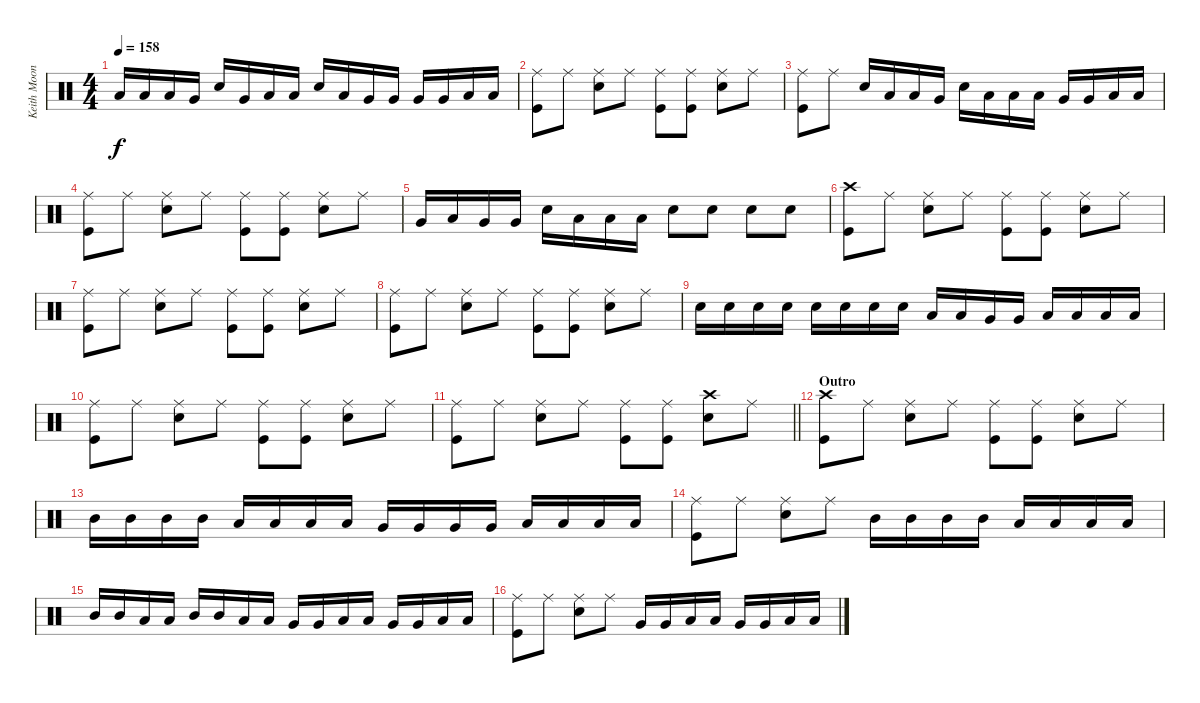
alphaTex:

\track ("Keith Moon" "Keith Moon") {instrument percussion}
\staff {score}
\articulation defaults
\ts (4 4)
\tempo 158
\clef neutral
\ks c "Low Tom (hit)".16{dy f} "Low Tom (hit)".16 "Low Floor Tom (hit)".16 "Very Low Tom (hit)".16 "Snare (hit) 2".16 "Very Low Tom (hit)".16 "Low Tom (hit)".16 "Low Tom (hit)".16 "Snare (hit) 2".16 "Low Tom (hit)".16 "Very Low Tom (hit)".16 "Very Low Tom (hit)".16 "Very Low Tom (hit)".16 "Very Low Tom (hit)".16 "Low Floor Tom (hit)".16 "Low Floor Tom (hit)".16
|
("Ride (middle)" "Kick (hit)").8 "Ride (middle)".8 ("Ride (middle)" "Snare (hit) 2").8 "Ride (middle)".8 ("Ride (middle)" "Kick (hit)").8 ("Ride (middle)" "Kick (hit)").8 ("Ride (middle)" "Snare (hit) 2").8 "Ride (middle)".8 |
("Ride (middle)" "Kick (hit)").8 "Ride (middle)".8 "Snare (hit) 2".16 "Low Tom (hit)".16 "Low Tom (hit)".16 "Very Low Tom (hit)".16 "Snare (hit) 2".16 "Low Tom (hit)".16 "Low Tom (hit)".16 "Low Tom (hit)".16 "Very Low Tom (hit)".16 "Very Low Tom (hit)".16 "Low Floor Tom (hit)".16 "Low Floor Tom (hit)".16 |
("Ride (middle)" "Kick (hit)").8 "Ride (middle)".8 ("Ride (middle)" "Snare (hit) 2").8 "Ride (middle)".8 ("Ride (middle)" "Kick (hit)").8 ("Ride (middle)" "Kick (hit)").8 ("Ride (middle)" "Snare (hit) 2").8 "Ride (middle)".8 |
"Very Low Tom (hit)".16 "Low Tom (hit)".16 "Very Low Tom (hit)".16 "Very Low Tom (hit)".16 "Snare (hit) 2".16 "Low Tom (hit)".16 "Low Tom (hit)".16 "Low Tom (hit)".16 "Snare (hit) 2".8 "Snare (hit) 2".8 "Snare (hit) 2".8 "Snare (hit) 2".8 |
("Crash high (hit)" "Kick (hit)").8 "Ride (middle)".8 ("Ride (middle)" "Snare (hit) 2").8 "Ride (middle)".8 ("Ride (middle)" "Kick (hit)").8 ("Ride (middle)" "Kick (hit)").8 ("Ride (middle)" "Snare (hit) 2").8 "Ride (middle)".8 |
("Ride (middle)" "Kick (hit)").8 "Ride (middle)".8 ("Ride (middle)" "Snare (hit) 2").8 "Ride (middle)".8 ("Ride (middle)" "Kick (hit)").8 ("Ride (middle)" "Kick (hit)").8 ("Ride (middle)" "Snare (hit) 2").8 "Ride (middle)".8 |
("Ride (middle)" "Kick (hit)").8 "Ride (middle)".8 ("Ride (middle)" "Snare (hit) 2").8 "Ride (middle)".8 ("Ride (middle)" "Kick (hit)").8 ("Ride (middle)" "Kick (hit)").8 ("Ride (middle)" "Snare (hit) 2").8 "Ride (middle)".8 |
"Snare (hit) 2".16 "Snare (hit) 2".16 "Snare (hit) 2".16 "Snare (hit) 2".16 "Snare (hit) 2".16 "Snare (hit) 2".16 "Snare (hit) 2".16 "Snare (hit) 2".16 "Low Tom (hit)".16 "Low Tom (hit)".16 "Very Low Tom (hit)".16 "Very Low Tom (hit)".16 "Low Floor Tom (hit)".16 "Low Floor Tom (hit)".16 "Low Floor Tom (hit)".16 "Low Floor Tom (hit)".16 |
("Ride (middle)" "Kick (hit)").8 "Ride (middle)".8 ("Ride (middle)" "Snare (hit) 2").8 "Ride (middle)".8 ("Ride (middle)" "Kick (hit)").8 ("Ride (middle)" "Kick (hit)").8 ("Ride (middle)" "Snare (hit) 2").8 "Ride (middle)".8 |
\barLineRight lightlight
("Ride (middle)" "Kick (hit)").8 "Ride (middle)".8 ("Ride (middle)" "Snare (hit) 2").8 "Ride (middle)".8 ("Ride (middle)" "Kick (hit)").8 ("Ride (middle)" "Kick (hit)").8 ("Crash high (hit)" "Snare (hit) 2").8 "Ride (middle)".8 |
\section ("" "Outro")
("Crash high (hit)" "Kick (hit)").8 "Ride (middle)".8 ("Ride (middle)" "Snare (hit) 2").8 "Ride (middle)".8 ("Ride (middle)" "Kick (hit)").8 ("Ride (middle)" "Kick (hit)").8 ("Ride (middle)" "Snare (hit) 2").8 "Ride (middle)".8 |
"Mid Tom (hit)".16 "Mid Tom (hit)".16 "Mid Tom (hit)".16 "Mid Tom (hit)".16 "Low Tom (hit)".16 "Low Tom (hit)".16 "Low Tom (hit)".16 "Low Tom (hit)".16 "Very Low Tom (hit)".16 "Very Low Tom (hit)".16 "Very Low Tom (hit)".16 "Very Low Tom (hit)".16 "Low Floor Tom (hit)".16 "Low Floor Tom (hit)".16 "Low Floor Tom (hit)".16 "Low Floor Tom (hit)".16 |
("Ride (middle)" "Kick (hit)").8 "Ride (middle)".8 ("Ride (middle)" "Snare (hit) 2").8 "Ride (middle)".8 "Mid Tom (hit)".16 "Mid Tom (hit)".16 "Mid Tom (hit)".16 "Mid Tom (hit)".16 "Low Tom (hit)".16 "Low Tom (hit)".16 "Low Tom (hit)".16 "Low Tom (hit)".16 |
"Mid Tom (hit)".16 "Mid Tom (hit)".16 "Low Tom (hit)".16 "Low Tom (hit)".16 "Mid Tom (hit)".16 "Mid Tom (hit)".16 "Low Tom (hit)".16 "Low Tom (hit)".16 "Very Low Tom (hit)".16 "Very Low Tom (hit)".16 "Low Floor Tom (hit)".16 "Low Floor Tom (hit)".16 "Very Low Tom (hit)".16 "Very Low Tom (hit)".16 "Low Floor Tom (hit)".16 "Low Floor Tom (hit)".16 |
("Ride (middle)" "Kick (hit)").8 "Ride (middle)".8 ("Ride (middle)" "Snare (hit) 2").8 "Ride (middle)".8 "Very Low Tom (hit)".16 "Very Low Tom (hit)".16 "Low Floor Tom (hit)".16 "Low Floor Tom (hit)".16 "Very Low Tom (hit)".16 "Very Low Tom (hit)".16 "Low Floor Tom (hit)".16 "Low Floor Tom (hit)".16
